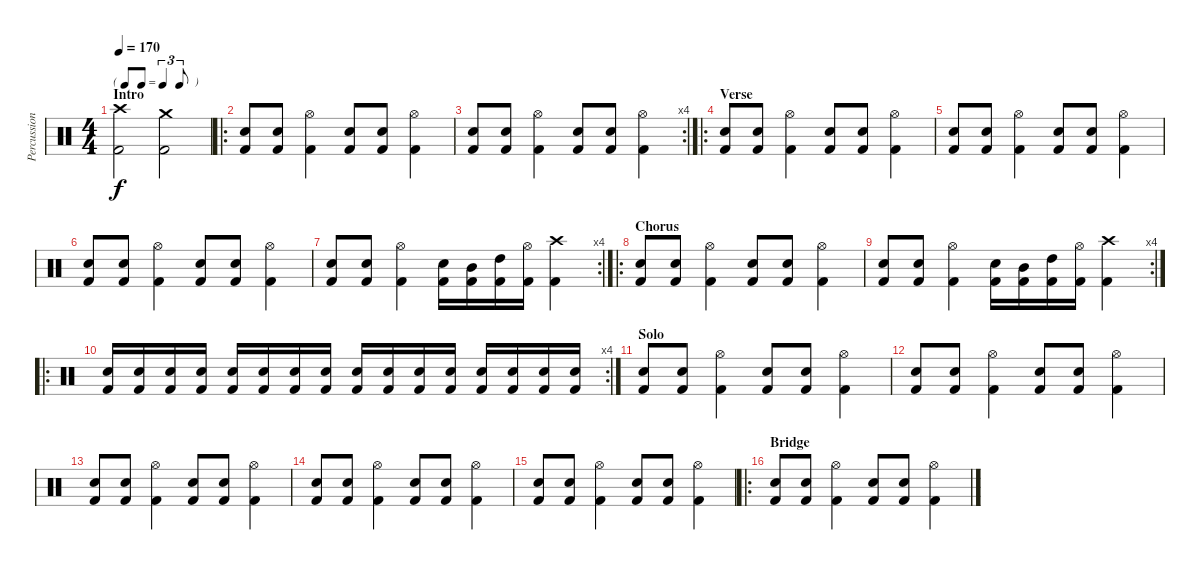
\track ("Percussion" "Percussion") {instrument percussion}
\staff {score}
\articulation defaults
\ts (4 4)
\tf triplet8th
\section ("" "Intro")
\tempo 170
\clef neutral
\ks c
("Crash high (hit)" "Kick (hit) 2").2{dy f} ("Crash medium (hit)" "Kick (hit) 2").2 |
\ro
("Electric Snare (hit)" "Kick (hit) 2").8 ("Electric Snare (hit)" "Kick (hit) 2").8 ("Hi-Hat (open)" "Kick (hit) 2").4 ("Electric Snare (hit)" "Kick (hit) 2").8 ("Electric Snare (hit)" "Kick (hit) 2").8 ("Hi-Hat (open)" "Kick (hit) 2").4 |
\rc 4
("Electric Snare (hit)" "Kick (hit) 2").8 ("Electric Snare (hit)" "Kick (hit) 2").8 ("Hi-Hat (open)" "Kick (hit) 2").4 ("Electric Snare (hit)" "Kick (hit) 2").8 ("Electric Snare (hit)" "Kick (hit) 2").8 ("Hi-Hat (open)" "Kick (hit) 2").4 |
\ro
\section ("" "Verse")
("Electric Snare (hit)" "Kick (hit) 2").8 ("Electric Snare (hit)" "Kick (hit) 2").8 ("Hi-Hat (open)" "Kick (hit) 2").4 ("Electric Snare (hit)" "Kick (hit) 2").8 ("Electric Snare (hit)" "Kick (hit) 2").8 ("Hi-Hat (open)" "Kick (hit) 2").4 |
("Electric Snare (hit)" "Kick (hit) 2").8 ("Electric Snare (hit)" "Kick (hit) 2").8 ("Hi-Hat (open)" "Kick (hit) 2").4 ("Electric Snare (hit)" "Kick (hit) 2").8 ("Electric Snare (hit)" "Kick (hit) 2").8 ("Hi-Hat (open)" "Kick (hit) 2").4 |
("Electric Snare (hit)" "Kick (hit) 2").8 ("Electric Snare (hit)" "Kick (hit) 2").8 ("Hi-Hat (open)" "Kick (hit) 2").4 ("Electric Snare (hit)" "Kick (hit) 2").8 ("Electric Snare (hit)" "Kick (hit) 2").8 ("Hi-Hat (open)" "Kick (hit) 2").4 |
\rc 4
("Electric Snare (hit)" "Kick (hit) 2").8 ("Electric Snare (hit)" "Kick (hit) 2").8 ("Hi-Hat (open)" "Kick (hit) 2").4 ("Electric Snare (hit)" "Kick (hit) 2").16 ("Mid Tom (hit)" "Kick (hit) 2").16 ("High Tom (hit)" "Kick (hit) 2").16 ("Hi-Hat (open)" "Kick (hit) 2").16 ("Crash high (hit)" "Kick (hit) 2").4 |
\ro
\section ("" "Chorus")
("Electric Snare (hit)" "Kick (hit) 2").8 ("Electric Snare (hit)" "Kick (hit) 2").8 ("Hi-Hat (open)" "Kick (hit) 2").4 ("Electric Snare (hit)" "Kick (hit) 2").8 ("Electric Snare (hit)" "Kick (hit) 2").8 ("Hi-Hat (open)" "Kick (hit) 2").4 |
\rc 4
("Electric Snare (hit)" "Kick (hit) 2").8 ("Electric Snare (hit)" "Kick (hit) 2").8 ("Hi-Hat (open)" "Kick (hit) 2").4 ("Electric Snare (hit)" "Kick (hit) 2").16 ("Mid Tom (hit)" "Kick (hit) 2").16 ("High Tom (hit)" "Kick (hit) 2").16 ("Hi-Hat (open)" "Kick (hit) 2").16 ("Crash high (hit)" "Kick (hit) 2").4 |
\ro
\rc 4
("Electric Snare (hit)" "Kick (hit) 2").16 ("Electric Snare (hit)" "Kick (hit) 2").16 ("Electric Snare (hit)" "Kick (hit) 2").16 ("Electric Snare (hit)" "Kick (hit) 2").16 ("Electric Snare (hit)" "Kick (hit) 2").16 ("Electric Snare (hit)" "Kick (hit) 2").16 ("Electric Snare (hit)" "Kick (hit) 2").16 ("Electric Snare (hit)" "Kick (hit) 2").16 ("Electric Snare (hit)" "Kick (hit) 2").16 ("Electric Snare (hit)" "Kick (hit) 2").16 ("Electric Snare (hit)" "Kick (hit) 2").16 ("Electric Snare (hit)" "Kick (hit) 2").16 ("Electric Snare (hit)" "Kick (hit) 2").16 ("Electric Snare (hit)" "Kick (hit) 2").16 ("Electric Snare (hit)" "Kick (hit) 2").16 ("Electric Snare (hit)" "Kick (hit) 2").16 |
\section ("" "Solo")
("Electric Snare (hit)" "Kick (hit) 2").8 ("Electric Snare (hit)" "Kick (hit) 2").8 ("Hi-Hat (open)" "Kick (hit) 2").4 ("Electric Snare (hit)" "Kick (hit) 2").8 ("Electric Snare (hit)" "Kick (hit) 2").8 ("Hi-Hat (open)" "Kick (hit) 2").4 |
("Electric Snare (hit)" "Kick (hit) 2").8 ("Electric Snare (hit)" "Kick (hit) 2").8 ("Hi-Hat (open)" "Kick (hit) 2").4 ("Electric Snare (hit)" "Kick (hit) 2").8 ("Electric Snare (hit)" "Kick (hit) 2").8 ("Hi-Hat (open)" "Kick (hit) 2").4 |
("Electric Snare (hit)" "Kick (hit) 2").8 ("Electric Snare (hit)" "Kick (hit) 2").8 ("Hi-Hat (open)" "Kick (hit) 2").4 ("Electric Snare (hit)" "Kick (hit) 2").8 ("Electric Snare (hit)" "Kick (hit) 2").8 ("Hi-Hat (open)" "Kick (hit) 2").4 |
("Electric Snare (hit)" "Kick (hit) 2").8 ("Electric Snare (hit)" "Kick (hit) 2").8 ("Hi-Hat (open)" "Kick (hit) 2").4 ("Electric Snare (hit)" "Kick (hit) 2").8 ("Electric Snare (hit)" "Kick (hit) 2").8 ("Hi-Hat (open)" "Kick (hit) 2").4 |
("Electric Snare (hit)" "Kick (hit) 2").8 ("Electric Snare (hit)" "Kick (hit) 2").8 ("Hi-Hat (open)" "Kick (hit) 2").4 ("Electric Snare (hit)" "Kick (hit) 2").8 ("Electric Snare (hit)" "Kick (hit) 2").8 ("Hi-Hat (open)" "Kick (hit) 2").4 |
\ro
\section ("" "Bridge")
("Electric Snare (hit)" "Kick (hit) 2").8 ("Electric Snare (hit)" "Kick (hit) 2").8 ("Hi-Hat (open)" "Kick (hit) 2").4 ("Electric Snare (hit)" "Kick (hit) 2").8 ("Electric Snare (hit)" "Kick (hit) 2").8 ("Hi-Hat (open)" "Kick (hit) 2").4
